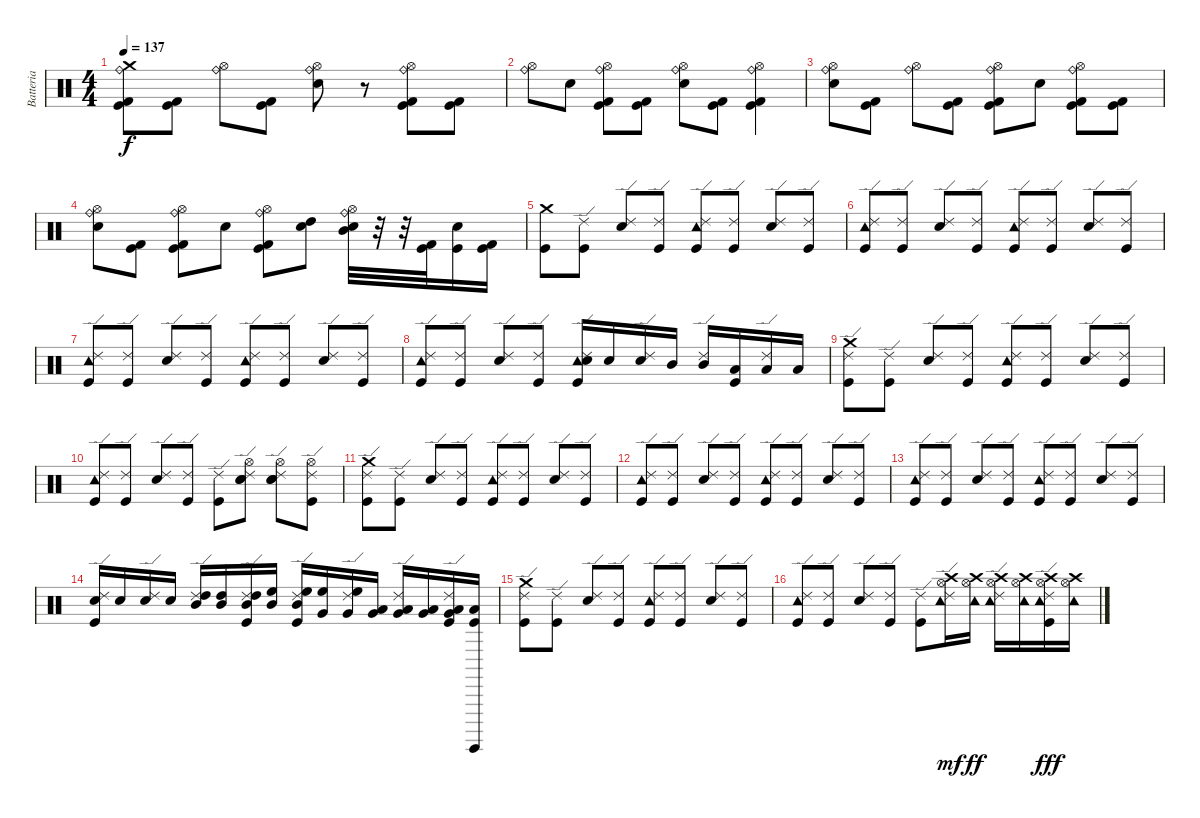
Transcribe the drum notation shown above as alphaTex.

\track ("Batteria" "Batteria") {instrument percussion}
\staff {score}
\articulation defaults
\ts (4 4)
\tempo 137
\clef neutral
\ks c
("Ride (bell)" "Crash medium (hit)" "Kick (hit) 2" "Kick (hit)").8{dy f} ("Kick (hit) 2" "Kick (hit)").8 ("Ride (bell)" "Hi-Hat (open)").8 ("Kick (hit) 2" "Kick (hit)").8 ("Ride (bell)" "Hi-Hat (open)" "Electric Snare (hit)").8 r.8 ("Ride (bell)" "Hi-Hat (open)" "Kick (hit) 2" "Kick (hit)").8 ("Kick (hit) 2" "Kick (hit)").8 |
("Ride (bell)" "Hi-Hat (open)").8 "Electric Snare (hit)".8 ("Ride (bell)" "Hi-Hat (open)" "Kick (hit) 2" "Kick (hit)").8 ("Kick (hit) 2" "Kick (hit)").8 ("Ride (bell)" "Hi-Hat (open)" "Electric Snare (hit)").8 ("Kick (hit) 2" "Kick (hit)").8 ("Ride (bell)" "Hi-Hat (open)" "Kick (hit) 2" "Kick (hit)").4 |
("Ride (bell)" "Hi-Hat (open)" "Electric Snare (hit)").8 ("Kick (hit) 2" "Kick (hit)").8 ("Ride (bell)" "Hi-Hat (open)").8 ("Kick (hit) 2" "Kick (hit)").8 ("Ride (bell)" "Hi-Hat (open)" "Kick (hit) 2" "Kick (hit)").8 "Electric Snare (hit)".8 ("Ride (bell)" "Hi-Hat (open)" "Kick (hit) 2" "Kick (hit)").8 ("Kick (hit) 2" "Kick (hit)").8 |
("Ride (bell)" "Hi-Hat (open)" "Electric Snare (hit)").8 ("Kick (hit) 2" "Kick (hit)").8 ("Ride (bell)" "Hi-Hat (open)" "Kick (hit) 2" "Kick (hit)").8 "Electric Snare (hit)".8 ("Ride (bell)" "Hi-Hat (open)" "Kick (hit) 2" "Kick (hit)").8 ("High Tom (hit)" "Electric Snare (hit)").8 ("Ride (bell)" "Hi-Hat (open)" "Mid Tom (hit)" "Electric Snare (hit)").32 r.32 r.32 ("Kick (hit) 2" "Kick (hit)").32 ("Electric Snare (hit)" "Kick (hit)").16 ("Kick (hit) 2" "Kick (hit)").16 |
("Crash medium (hit)" "Kick (hit)").8 ("Ride (edge) 2" "Kick (hit)").8 ("Ride (edge) 2" "Electric Snare (hit)").8 ("Ride (edge) 2" "Kick (hit)").8 ("Ride (edge) 2" "Tambourine (hit)" "Kick (hit)").8 ("Ride (edge) 2" "Kick (hit)").8 ("Ride (edge) 2" "Electric Snare (hit)").8 ("Ride (edge) 2" "Kick (hit)").8 |
("Ride (edge) 2" "Tambourine (hit)" "Kick (hit)").8 ("Ride (edge) 2" "Kick (hit)").8 ("Ride (edge) 2" "Electric Snare (hit)").8 ("Ride (edge) 2" "Kick (hit)").8 ("Ride (edge) 2" "Tambourine (hit)" "Kick (hit)").8 ("Ride (edge) 2" "Kick (hit)").8 ("Ride (edge) 2" "Electric Snare (hit)").8 ("Ride (edge) 2" "Kick (hit)").8 |
("Ride (edge) 2" "Tambourine (hit)" "Kick (hit)").8 ("Ride (edge) 2" "Kick (hit)").8 ("Ride (edge) 2" "Electric Snare (hit)").8 ("Ride (edge) 2" "Kick (hit)").8 ("Ride (edge) 2" "Tambourine (hit)" "Kick (hit)").8 ("Ride (edge) 2" "Kick (hit)").8 ("Ride (edge) 2" "Electric Snare (hit)").8 ("Ride (edge) 2" "Kick (hit)").8 |
("Ride (edge) 2" "Tambourine (hit)" "Kick (hit)").8 ("Ride (edge) 2" "Kick (hit)").8 ("Ride (edge) 2" "Electric Snare (hit)").8 ("Ride (edge) 2" "Kick (hit)").8 ("Ride (edge) 2" "Tambourine (hit)" "Electric Snare (hit)" "Kick (hit)").16 "Electric Snare (hit)".16 ("Ride (edge) 2" "Electric Snare (hit)").16 "Mid Tom (hit)".16 ("Ride (edge) 2" "Mid Tom (hit)").16 ("Low Tom (hit)" "Kick (hit)").16 ("Ride (edge) 2" "Low Tom (hit)").16 "Low Floor Tom (hit)".16 |
("Ride (edge) 2" "Crash medium (hit)" "Kick (hit)").8 ("Ride (edge) 2" "Kick (hit)").8 ("Ride (edge) 2" "Electric Snare (hit)").8 ("Ride (edge) 2" "Kick (hit)").8 ("Ride (edge) 2" "Tambourine (hit)" "Kick (hit)").8 ("Ride (edge) 2" "Kick (hit)").8 ("Ride (edge) 2" "Electric Snare (hit)").8 ("Ride (edge) 2" "Kick (hit)").8 |
("Ride (edge) 2" "Tambourine (hit)" "Kick (hit)").8 ("Ride (edge) 2" "Kick (hit)").8 ("Ride (edge) 2" "Electric Snare (hit)").8 ("Ride (edge) 2" "Kick (hit)").8 ("Ride (edge) 2" "Kick (hit)").8 ("Ride (edge) 2" "Hi-Hat (open)" "Snare (hit) 2" "Electric Snare (hit)").8 ("Ride (edge) 2" "Hi-Hat (open)" "Snare (hit) 2" "Electric Snare (hit)").8 ("Ride (edge) 2" "Hi-Hat (open)" "Kick (hit)").8 |
("Ride (edge) 2" "Crash medium (hit)" "Kick (hit)").8 ("Ride (edge) 2" "Kick (hit)").8 ("Ride (edge) 2" "Electric Snare (hit)").8 ("Ride (edge) 2" "Kick (hit)").8 ("Ride (edge) 2" "Tambourine (hit)" "Kick (hit)").8 ("Ride (edge) 2" "Kick (hit)").8 ("Ride (edge) 2" "Electric Snare (hit)").8 ("Ride (edge) 2" "Kick (hit)").8 |
("Ride (edge) 2" "Tambourine (hit)" "Kick (hit)").8 ("Ride (edge) 2" "Kick (hit)").8 ("Ride (edge) 2" "Electric Snare (hit)").8 ("Ride (edge) 2" "Kick (hit)").8 ("Ride (edge) 2" "Tambourine (hit)" "Kick (hit)").8 ("Ride (edge) 2" "Kick (hit)").8 ("Ride (edge) 2" "Electric Snare (hit)").8 ("Ride (edge) 2" "Kick (hit)").8 |
("Ride (edge) 2" "Tambourine (hit)" "Kick (hit)").8 ("Ride (edge) 2" "Kick (hit)").8 ("Ride (edge) 2" "Electric Snare (hit)").8 ("Ride (edge) 2" "Kick (hit)").8 ("Ride (edge) 2" "Tambourine (hit)" "Kick (hit)").8 ("Ride (edge) 2" "Kick (hit)").8 ("Ride (edge) 2" "Electric Snare (hit)").8 ("Ride (edge) 2" "Kick (hit)").8 |
("Ride (edge) 2" "Electric Snare (hit)" "Kick (hit)").16 "Electric Snare (hit)".16 ("Ride (edge) 2" "Electric Snare (hit)").16 "Electric Snare (hit)".16 ("Ride (edge) 2" "Mid Tom (hit)" "High Tom (hit)").16 ("Mid Tom (hit)" "High Tom (hit)").16 ("Ride (edge) 2" "Mid Tom (hit)" "High Tom (hit)" "Kick (hit)").16 ("High Floor Tom (hit)" "Mid Tom (hit)").16 ("Ride (edge) 2" "High Floor Tom (hit)" "Mid Tom (hit)" "Kick (hit)").16 ("High Floor Tom (hit)" "Very Low Tom (hit)").16 ("Ride (edge) 2" "High Floor Tom (hit)" "Very Low Tom (hit)").16 ("Very Low Tom (hit)" "Low Tom (hit)").16 ("Ride (edge) 2" "Very Low Tom (hit)" "Low Tom (hit)").16 ("Very Low Tom (hit)" "Low Floor Tom (hit)").16 ("Ride (edge) 2" "Very Low Tom (hit)" "Low Floor Tom (hit)" "Kick (hit)").16 ("Surdo (hit)" "Low Floor Tom (hit)" "Kick (hit)").16 |
("Ride (edge) 2" "Crash medium (hit)" "Kick (hit)").8 ("Ride (edge) 2" "Kick (hit)").8 ("Ride (edge) 2" "Electric Snare (hit)").8 ("Ride (edge) 2" "Kick (hit)").8 ("Ride (edge) 2" "Tambourine (hit)" "Kick (hit)").8 ("Ride (edge) 2" "Kick (hit)").8 ("Ride (edge) 2" "Electric Snare (hit)").8 ("Ride (edge) 2" "Kick (hit)").8 |
("Ride (edge) 2" "Tambourine (hit)" "Kick (hit)").8 ("Ride (edge) 2" "Kick (hit)").8 ("Ride (edge) 2" "Electric Snare (hit)").8 ("Ride (edge) 2" "Kick (hit)").8 ("Ride (edge) 2" "Kick (hit)").8 ("Ride (edge) 2" "Tambourine (hit)" "Hi-Hat (open)" "Crash high (hit)").16{dy mf} ("Tambourine (hit)" "Hi-Hat (open)" "Crash high (hit)").16{dy ff} ("Ride (edge) 2" "Tambourine (hit)" "Hi-Hat (open)" "Crash high (hit)").16 ("Tambourine (hit)" "Hi-Hat (open)" "Crash high (hit)").16 ("Ride (edge) 2" "Tambourine (hit)" "Hi-Hat (open)" "Crash high (hit)" "Kick (hit)").16{dy fff} ("Tambourine (hit)" "Hi-Hat (open)" "Crash high (hit)").16
